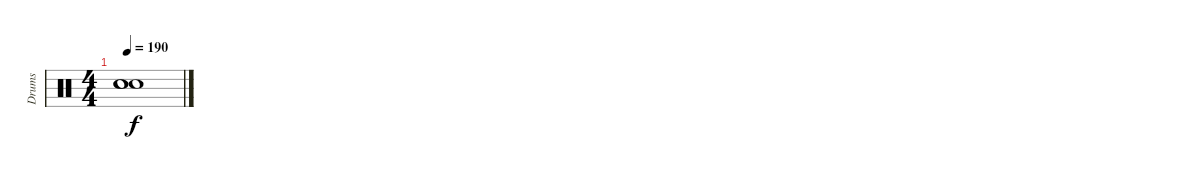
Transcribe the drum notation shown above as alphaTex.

\track ("Drums" "Drums") {instrument percussion}
\staff {score}
\articulation defaults
\ts (4 4)
\tempo 190
\clef neutral
\ks c
("Snare (hit)"{t} "Snare (hit)"{t} "Snare (hit)"{t}).1{dy f}
